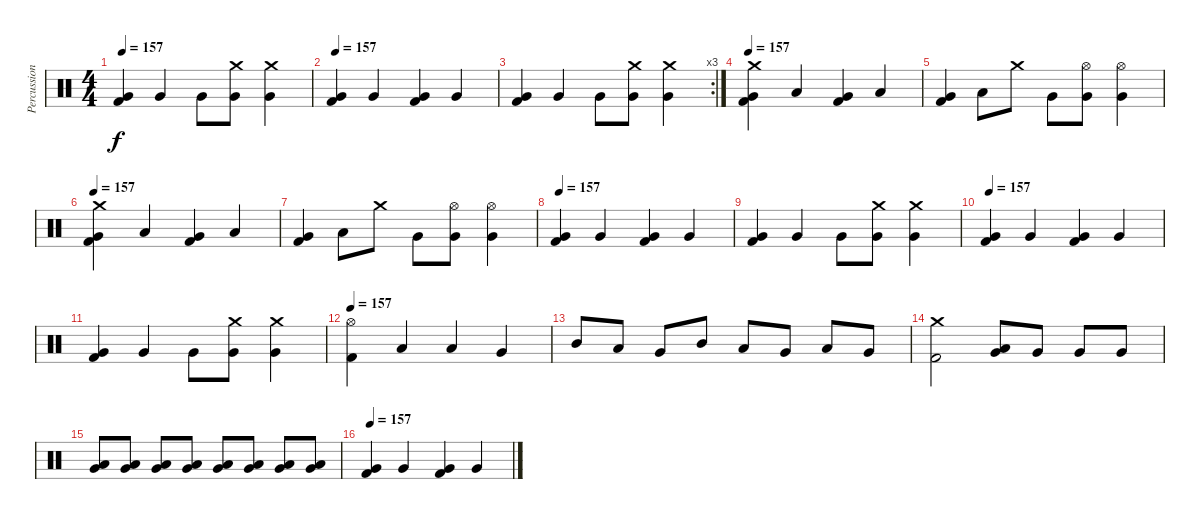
\track ("Percussion" "Percussion") {instrument percussion}
\staff {score}
\articulation defaults
\ts (4 4)
\tempo 157
\clef neutral
\ks c
("Kick (hit) 2" "Very Low Tom (hit)").4{dy f} "Very Low Tom (hit)".4 "Very Low Tom (hit)".8 ("Very Low Tom (hit)" "Crash medium (hit)").8 ("Very Low Tom (hit)" "Crash medium (hit)").4 |
\tempo 157
("Kick (hit) 2" "Very Low Tom (hit)").4 "Very Low Tom (hit)".4 ("Kick (hit) 2" "Very Low Tom (hit)").4 "Very Low Tom (hit)".4 |
\rc 3
("Kick (hit) 2" "Very Low Tom (hit)").4 "Very Low Tom (hit)".4 "Very Low Tom (hit)".8 ("Very Low Tom (hit)" "Crash medium (hit)").8 ("Very Low Tom (hit)" "Crash medium (hit)").4 |
\tempo 157
("Kick (hit) 2" "Very Low Tom (hit)" "Crash medium (hit)").4 "Low Floor Tom (hit)".4 ("Kick (hit) 2" "Very Low Tom (hit)").4 "Low Floor Tom (hit)".4 |
("Kick (hit) 2" "Very Low Tom (hit)").4 "Low Floor Tom (hit)".8 "Crash medium (hit)".8 "Very Low Tom (hit)".8 ("Very Low Tom (hit)" "Hi-Hat (open)").8 ("Very Low Tom (hit)" "Hi-Hat (open)").4 |
\tempo 157
("Kick (hit) 2" "Very Low Tom (hit)" "Crash medium (hit)").4 "Low Floor Tom (hit)".4 ("Kick (hit) 2" "Very Low Tom (hit)").4 "Low Floor Tom (hit)".4 |
("Kick (hit) 2" "Very Low Tom (hit)").4 "Low Floor Tom (hit)".8 "Crash medium (hit)".8 "Very Low Tom (hit)".8 ("Very Low Tom (hit)" "Hi-Hat (open)").8 ("Very Low Tom (hit)" "Hi-Hat (open)").4 |
\tempo 157
("Kick (hit) 2" "Very Low Tom (hit)").4 "Very Low Tom (hit)".4 ("Kick (hit) 2" "Very Low Tom (hit)").4 "Very Low Tom (hit)".4 |
("Kick (hit) 2" "Very Low Tom (hit)").4 "Very Low Tom (hit)".4 "Very Low Tom (hit)".8 ("Very Low Tom (hit)" "Crash medium (hit)").8 ("Very Low Tom (hit)" "Crash medium (hit)").4 |
\tempo 157
("Kick (hit) 2" "Very Low Tom (hit)").4 "Very Low Tom (hit)".4 ("Kick (hit) 2" "Very Low Tom (hit)").4 "Very Low Tom (hit)".4 |
("Kick (hit) 2" "Very Low Tom (hit)").4 "Very Low Tom (hit)".4 "Very Low Tom (hit)".8 ("Very Low Tom (hit)" "Crash medium (hit)").8 ("Very Low Tom (hit)" "Crash medium (hit)").4 |
\tempo 157
("Kick (hit) 2" "Hi-Hat (open)").4 "Low Tom (hit)".4 "Low Tom (hit)".4 "Very Low Tom (hit)".4 |
"Mid Tom (hit)".8 "Low Tom (hit)".8 "Very Low Tom (hit)".8 "Mid Tom (hit)".8 "Low Tom (hit)".8 "Very Low Tom (hit)".8 "Low Tom (hit)".8 "Very Low Tom (hit)".8 |
("Kick (hit) 2" "Crash medium (hit)").2 ("Very Low Tom (hit)" "Low Tom (hit)").8 "Very Low Tom (hit)".8 "Very Low Tom (hit)".8 "Very Low Tom (hit)".8 |
("Very Low Tom (hit)" "Low Tom (hit)").8 ("Very Low Tom (hit)" "Low Tom (hit)").8 ("Very Low Tom (hit)" "Low Tom (hit)").8 ("Very Low Tom (hit)" "Low Tom (hit)").8 ("Very Low Tom (hit)" "Low Tom (hit)").8 ("Very Low Tom (hit)" "Low Tom (hit)").8 ("Very Low Tom (hit)" "Low Tom (hit)").8 ("Very Low Tom (hit)" "Low Tom (hit)").8 |
\tempo 157
("Kick (hit) 2" "Very Low Tom (hit)").4 "Very Low Tom (hit)".4 ("Kick (hit) 2" "Very Low Tom (hit)").4 "Very Low Tom (hit)".4
